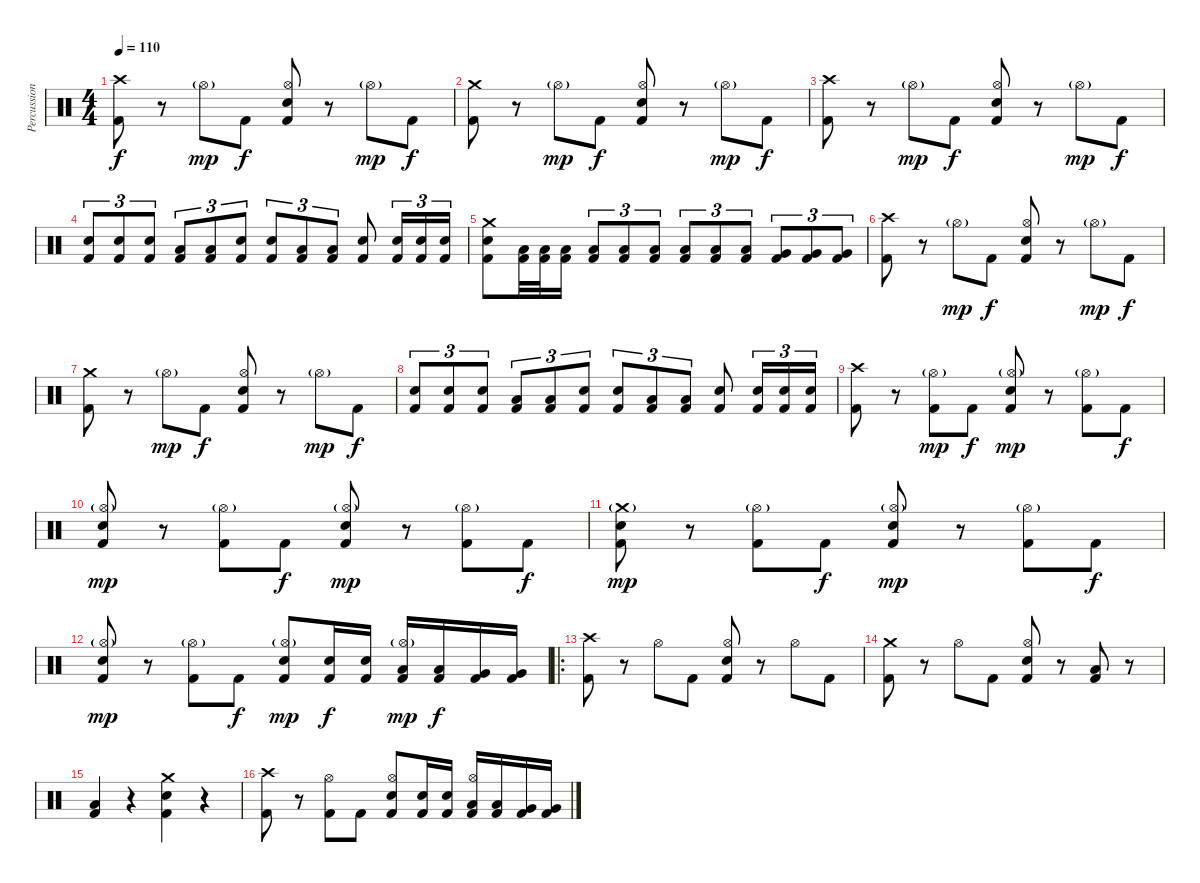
\track ("Percussion" "Percussion") {instrument percussion}
\staff {score}
\articulation defaults
\ts (4 4)
\tempo 110
\clef neutral
\ks c
("Crash high (hit)" "Kick (hit) 2").8{dy f} r.8 "Hi-Hat (open)"{g}.8{dy mp} "Kick (hit) 2".8{dy f} ("Hi-Hat (open)" "Electric Snare (hit)" "Kick (hit) 2").8 r.8 "Hi-Hat (open)"{g}.8{dy mp} "Kick (hit) 2".8{dy f} |
("Crash medium (hit)" "Kick (hit) 2").8 r.8 "Hi-Hat (open)"{g}.8{dy mp} "Kick (hit) 2".8{dy f} ("Hi-Hat (open)" "Electric Snare (hit)" "Kick (hit) 2").8 r.8 "Hi-Hat (open)"{g}.8{dy mp} "Kick (hit) 2".8{dy f} |
("Crash high (hit)" "Kick (hit) 2").8 r.8 "Hi-Hat (open)"{g}.8{dy mp} "Kick (hit) 2".8{dy f} ("Hi-Hat (open)" "Electric Snare (hit)" "Kick (hit) 2").8 r.8 "Hi-Hat (open)"{g}.8{dy mp} "Kick (hit) 2".8{dy f} |
("Electric Snare (hit)" "Kick (hit) 2").8{tu (3 2)} ("Electric Snare (hit)" "Kick (hit) 2").8{tu (3 2)} ("Electric Snare (hit)" "Kick (hit) 2").8{tu (3 2)} ("Low Tom (hit)" "Kick (hit) 2").8{tu (3 2)} ("Low Tom (hit)" "Kick (hit) 2").8{tu (3 2)} ("Electric Snare (hit)" "Kick (hit) 2").8{tu (3 2)} ("Electric Snare (hit)" "Kick (hit) 2").8{tu (3 2)} ("Low Tom (hit)" "Kick (hit) 2").8{tu (3 2)} ("Low Tom (hit)" "Kick (hit) 2").8{tu (3 2)} ("Electric Snare (hit)" "Kick (hit) 2").8 ("Electric Snare (hit)" "Kick (hit) 2").16{tu (3 2)} ("Electric Snare (hit)" "Kick (hit) 2").16{tu (3 2)} ("Electric Snare (hit)" "Kick (hit) 2").16{tu (3 2)} |
("Crash medium (hit)" "Electric Snare (hit)" "Kick (hit) 2").8 ("Low Tom (hit)" "Kick (hit) 2").32 ("Low Tom (hit)" "Kick (hit) 2").32 ("Low Tom (hit)" "Kick (hit) 2").16 ("Low Tom (hit)" "Kick (hit) 2").8{tu (3 2)} ("Low Tom (hit)" "Kick (hit) 2").8{tu (3 2)} ("Low Tom (hit)" "Kick (hit) 2").8{tu (3 2)} ("Low Tom (hit)" "Kick (hit) 2").8{tu (3 2)} ("Low Tom (hit)" "Kick (hit) 2").8{tu (3 2)} ("Low Tom (hit)" "Kick (hit) 2").8{tu (3 2)} ("Very Low Tom (hit)" "Kick (hit) 2").8{tu (3 2)} ("Very Low Tom (hit)" "Kick (hit) 2").8{tu (3 2)} ("Very Low Tom (hit)" "Kick (hit) 2").8{tu (3 2)} |
("Crash high (hit)" "Kick (hit) 2").8 r.8 "Hi-Hat (open)"{g}.8{dy mp} "Kick (hit) 2".8{dy f} ("Hi-Hat (open)" "Electric Snare (hit)" "Kick (hit) 2").8 r.8 "Hi-Hat (open)"{g}.8{dy mp} "Kick (hit) 2".8{dy f} |
("Crash medium (hit)" "Kick (hit) 2").8 r.8 "Hi-Hat (open)"{g}.8{dy mp} "Kick (hit) 2".8{dy f} ("Hi-Hat (open)" "Electric Snare (hit)" "Kick (hit) 2").8 r.8 "Hi-Hat (open)"{g}.8{dy mp} "Kick (hit) 2".8{dy f} |
("Electric Snare (hit)" "Kick (hit) 2").8{tu (3 2)} ("Electric Snare (hit)" "Kick (hit) 2").8{tu (3 2)} ("Electric Snare (hit)" "Kick (hit) 2").8{tu (3 2)} ("Low Tom (hit)" "Kick (hit) 2").8{tu (3 2)} ("Low Tom (hit)" "Kick (hit) 2").8{tu (3 2)} ("Electric Snare (hit)" "Kick (hit) 2").8{tu (3 2)} ("Electric Snare (hit)" "Kick (hit) 2").8{tu (3 2)} ("Low Tom (hit)" "Kick (hit) 2").8{tu (3 2)} ("Low Tom (hit)" "Kick (hit) 2").8{tu (3 2)} ("Electric Snare (hit)" "Kick (hit) 2").8 ("Electric Snare (hit)" "Kick (hit) 2").16{tu (3 2)} ("Electric Snare (hit)" "Kick (hit) 2").16{tu (3 2)} ("Electric Snare (hit)" "Kick (hit) 2").16{tu (3 2)} |
("Crash high (hit)" "Kick (hit) 2").8 r.8 ("Hi-Hat (open)"{g} "Kick (hit) 2").8{dy mp} "Kick (hit) 2".8{dy f} ("Hi-Hat (open)"{g} "Electric Snare (hit)" "Kick (hit) 2").8{dy mp} r.8 ("Hi-Hat (open)"{g} "Kick (hit) 2").8 "Kick (hit) 2".8{dy f} |
("Hi-Hat (open)"{g} "Electric Snare (hit)" "Kick (hit) 2").8{dy mp} r.8 ("Hi-Hat (open)"{g} "Kick (hit) 2").8 "Kick (hit) 2".8{dy f} ("Hi-Hat (open)"{g} "Electric Snare (hit)" "Kick (hit) 2").8{dy mp} r.8 ("Hi-Hat (open)"{g} "Kick (hit) 2").8 "Kick (hit) 2".8{dy f} |
("Crash medium (hit)"{g} "Electric Snare (hit)" "Kick (hit) 2").8{dy mp} r.8 ("Hi-Hat (open)"{g} "Kick (hit) 2").8 "Kick (hit) 2".8{dy f} ("Hi-Hat (open)"{g} "Electric Snare (hit)" "Kick (hit) 2").8{dy mp} r.8 ("Hi-Hat (open)"{g} "Kick (hit) 2").8 "Kick (hit) 2".8{dy f} |
("Hi-Hat (open)"{g} "Electric Snare (hit)" "Kick (hit) 2").8{dy mp} r.8 ("Hi-Hat (open)"{g} "Kick (hit) 2").8 "Kick (hit) 2".8{dy f} ("Hi-Hat (open)"{g} "Electric Snare (hit)" "Kick (hit) 2").8{dy mp} ("Electric Snare (hit)" "Kick (hit) 2").16{dy f} ("Electric Snare (hit)" "Kick (hit) 2").16 ("Hi-Hat (open)"{g} "Low Tom (hit)" "Kick (hit) 2").16{dy mp} ("Low Tom (hit)" "Kick (hit) 2").16{dy f} ("Very Low Tom (hit)" "Kick (hit) 2").16 ("Very Low Tom (hit)" "Kick (hit) 2").16 |
\ro
("Crash high (hit)" "Kick (hit) 2").8 r.8 "Hi-Hat (open)".8 "Kick (hit) 2".8 ("Hi-Hat (open)" "Electric Snare (hit)" "Kick (hit) 2").8 r.8 "Hi-Hat (open)".8 "Kick (hit) 2".8 |
("Crash medium (hit)" "Kick (hit) 2").8 r.8 "Hi-Hat (open)".8 "Kick (hit) 2".8 ("Hi-Hat (open)" "Electric Snare (hit)" "Kick (hit) 2").8 r.8 ("Low Tom (hit)" "Kick (hit) 2").8 r.8 |
("Low Tom (hit)" "Kick (hit) 2").4 r.4 ("Crash medium (hit)" "Electric Snare (hit)" "Kick (hit) 2").4 r.4 |
("Crash high (hit)" "Kick (hit) 2").8 r.8 ("Hi-Hat (open)" "Kick (hit) 2").8 "Kick (hit) 2".8 ("Hi-Hat (open)" "Electric Snare (hit)" "Kick (hit) 2").8 ("Electric Snare (hit)" "Kick (hit) 2").16 ("Electric Snare (hit)" "Kick (hit) 2").16 ("Hi-Hat (open)" "Low Tom (hit)" "Kick (hit) 2").16 ("Low Tom (hit)" "Kick (hit) 2").16 ("Very Low Tom (hit)" "Kick (hit) 2").16 ("Very Low Tom (hit)" "Kick (hit) 2").16
